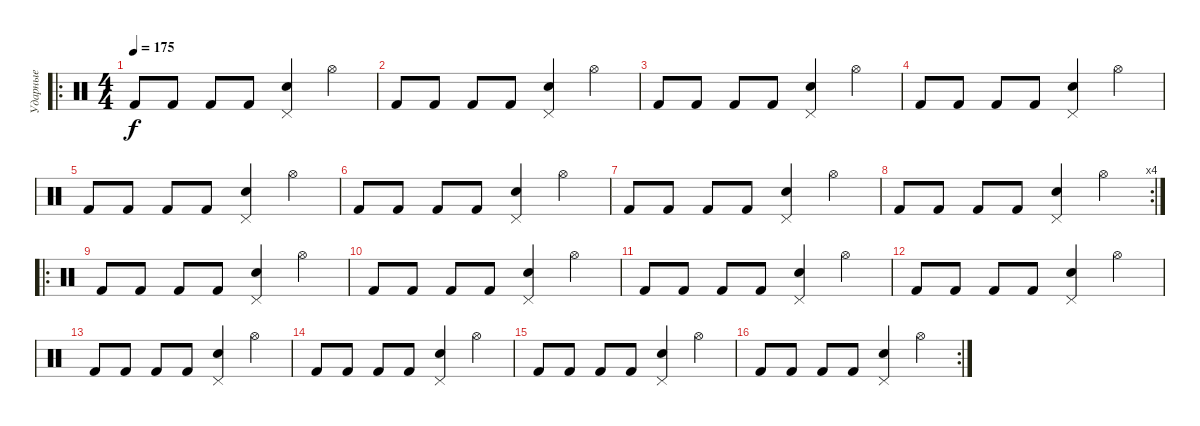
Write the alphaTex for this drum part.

\track ("Ударные" "Ударные") {instrument percussion}
\staff {score}
\articulation defaults
\ro
\ts (4 4)
\tempo 175
\clef neutral
\ks c "Kick (hit) 2".8{dy f} "Kick (hit) 2".8 "Kick (hit) 2".8 "Kick (hit) 2".8
("Pedal Hi-Hat (hit)" "Electric Snare (hit)").4 "Hi-Hat (open)".4 |
"Kick (hit) 2".8 "Kick (hit) 2".8 "Kick (hit) 2".8 "Kick (hit) 2".8 ("Pedal Hi-Hat (hit)" "Electric Snare (hit)").4 "Hi-Hat (open)".4 |
"Kick (hit) 2".8 "Kick (hit) 2".8 "Kick (hit) 2".8 "Kick (hit) 2".8 ("Pedal Hi-Hat (hit)" "Electric Snare (hit)").4 "Hi-Hat (open)".4 |
"Kick (hit) 2".8 "Kick (hit) 2".8 "Kick (hit) 2".8 "Kick (hit) 2".8 ("Pedal Hi-Hat (hit)" "Electric Snare (hit)").4 "Hi-Hat (open)".4 |
"Kick (hit) 2".8 "Kick (hit) 2".8 "Kick (hit) 2".8 "Kick (hit) 2".8 ("Pedal Hi-Hat (hit)" "Electric Snare (hit)").4 "Hi-Hat (open)".4 |
"Kick (hit) 2".8 "Kick (hit) 2".8 "Kick (hit) 2".8 "Kick (hit) 2".8 ("Pedal Hi-Hat (hit)" "Electric Snare (hit)").4 "Hi-Hat (open)".4 |
"Kick (hit) 2".8 "Kick (hit) 2".8 "Kick (hit) 2".8 "Kick (hit) 2".8 ("Pedal Hi-Hat (hit)" "Electric Snare (hit)").4 "Hi-Hat (open)".4 |
\rc 4 "Kick (hit) 2".8 "Kick (hit) 2".8 "Kick (hit) 2".8 "Kick (hit) 2".8
("Pedal Hi-Hat (hit)" "Electric Snare (hit)").4 "Hi-Hat (open)".4 |
\ro "Kick (hit) 2".8 "Kick (hit) 2".8 "Kick (hit) 2".8 "Kick (hit) 2".8
("Pedal Hi-Hat (hit)" "Electric Snare (hit)").4 "Hi-Hat (open)".4 |
"Kick (hit) 2".8 "Kick (hit) 2".8 "Kick (hit) 2".8 "Kick (hit) 2".8 ("Pedal Hi-Hat (hit)" "Electric Snare (hit)").4 "Hi-Hat (open)".4 |
"Kick (hit) 2".8 "Kick (hit) 2".8 "Kick (hit) 2".8 "Kick (hit) 2".8 ("Pedal Hi-Hat (hit)" "Electric Snare (hit)").4 "Hi-Hat (open)".4 |
"Kick (hit) 2".8 "Kick (hit) 2".8 "Kick (hit) 2".8 "Kick (hit) 2".8 ("Pedal Hi-Hat (hit)" "Electric Snare (hit)").4 "Hi-Hat (open)".4 |
"Kick (hit) 2".8 "Kick (hit) 2".8 "Kick (hit) 2".8 "Kick (hit) 2".8 ("Pedal Hi-Hat (hit)" "Electric Snare (hit)").4 "Hi-Hat (open)".4 |
"Kick (hit) 2".8 "Kick (hit) 2".8 "Kick (hit) 2".8 "Kick (hit) 2".8 ("Pedal Hi-Hat (hit)" "Electric Snare (hit)").4 "Hi-Hat (open)".4 |
"Kick (hit) 2".8 "Kick (hit) 2".8 "Kick (hit) 2".8 "Kick (hit) 2".8 ("Pedal Hi-Hat (hit)" "Electric Snare (hit)").4 "Hi-Hat (open)".4 |
\rc 2 "Kick (hit) 2".8 "Kick (hit) 2".8 "Kick (hit) 2".8 "Kick (hit) 2".8
("Pedal Hi-Hat (hit)" "Electric Snare (hit)").4 "Hi-Hat (open)".4
